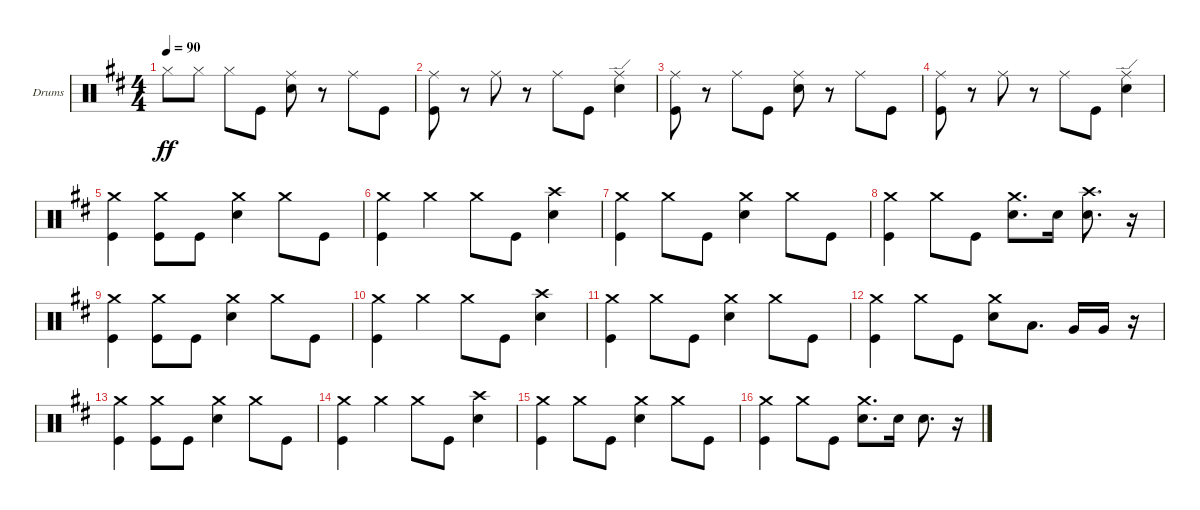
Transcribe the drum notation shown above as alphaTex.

\defaultSystemsLayout 4
\bracketExtendMode groupsimilarinstruments
\firstSystemTrackNameOrientation horizontal
\otherSystemsTrackNameOrientation horizontal
\track ("Drumkit" "Drums") {instrument percussion}
\staff {score}
\articulation defaults
\ts (4 4)
\tempo 90
\clef neutral
\scale
0.333333
\ks d "Hi-Hat (closed)".8{dy ff} "Hi-Hat (closed)".8 "Hi-Hat (closed)".8 "Kick (hit)".8
("Snare (hit) 2" "Ride (middle)").8 r.8 "Ride (middle)".8 "Kick (hit)".8 |
\scale
0.333333 ("Kick (hit)" "Ride (middle)").8 r.8 "Ride (middle)".8 r.8 "Ride (middle)".8 "Kick (hit)".8 ("Snare (hit) 2" "Ride (edge)").4 |
\scale
0.333333 ("Kick (hit)" "Ride (middle)").8 r.8 "Ride (middle)".8 "Kick (hit)".8 ("Snare (hit) 2" "Ride (middle)").8 r.8 "Ride (middle)".8 "Kick (hit)".8 |
\scale
0.333333 ("Kick (hit)" "Ride (middle)").8 r.8 "Ride (middle)".8 r.8 "Ride (middle)".8 "Kick (hit)".8 ("Snare (hit) 2" "Ride (edge)").4 |
\scale
0.333333 ("Kick (hit)" "Crash medium (hit)").4 ("Crash medium (hit)" "Kick (hit)").8 "Kick (hit)".8 ("Snare (hit) 2" "Crash medium (hit)").4 "Crash medium (hit)".8 "Kick (hit)".8 |
\scale
0.333333 ("Kick (hit)" "Crash medium (hit)").4 "Crash medium (hit)".4 "Crash medium (hit)".8 "Kick (hit)".8 ("Crash high (hit)" "Snare (hit) 2").4 |
\scale
0.333333 ("Kick (hit)" "Crash medium (hit)").4 "Crash medium (hit)".8 "Kick (hit)".8 ("Snare (hit) 2" "Crash medium (hit)").4 "Crash medium (hit)".8 "Kick (hit)".8 |
\scale
0.333333 ("Crash medium (hit)" "Kick (hit)").4 "Crash medium (hit)".8 "Kick (hit)".8 ("Snare (hit) 2" "Crash medium (hit)").8{d} "Snare (hit) 2".16 ("Snare (hit) 2" "Crash high (hit)").8{d} r.16 |
\scale
0.333333 ("Kick (hit)" "Crash medium (hit)").4 ("Crash medium (hit)" "Kick (hit)").8 "Kick (hit)".8 ("Snare (hit) 2" "Crash medium (hit)").4 "Crash medium (hit)".8 "Kick (hit)".8 |
\scale
0.333333 ("Kick (hit)" "Crash medium (hit)").4 "Crash medium (hit)".4 "Crash medium (hit)".8 "Kick (hit)".8 ("Crash high (hit)" "Snare (hit) 2").4 |
\scale
0.333333 ("Kick (hit)" "Crash medium (hit)").4 "Crash medium (hit)".8 "Kick (hit)".8 ("Snare (hit) 2" "Crash medium (hit)").4 "Crash medium (hit)".8 "Kick (hit)".8 |
\scale
0.333333 ("Crash medium (hit)" "Kick (hit)").4 "Crash medium (hit)".8 "Kick (hit)".8 ("Snare (hit) 2" "Crash medium (hit)").8 "Low Tom (hit)".8{d} "Very Low Tom (hit)".16 "Very Low Tom (hit)".16 r.16 |
\scale
0.333333 ("Kick (hit)" "Crash medium (hit)").4 ("Crash medium (hit)" "Kick (hit)").8 "Kick (hit)".8 ("Snare (hit) 2" "Crash medium (hit)").4 "Crash medium (hit)".8 "Kick (hit)".8 |
\scale
0.333333 ("Kick (hit)" "Crash medium (hit)").4 "Crash medium (hit)".4 "Crash medium (hit)".8 "Kick (hit)".8 ("Crash high (hit)" "Snare (hit) 2").4 |
\scale
0.333333 ("Kick (hit)" "Crash medium (hit)").4 "Crash medium (hit)".8 "Kick (hit)".8 ("Snare (hit) 2" "Crash medium (hit)").4 "Crash medium (hit)".8 "Kick (hit)".8 |
\scale
0.333333 ("Crash medium (hit)" "Kick (hit)").4 "Crash medium (hit)".8 "Kick (hit)".8 ("Snare (hit) 2" "Crash medium (hit)").8{d} "Snare (hit) 2".16 "Snare (hit) 2".8{d} r.16
